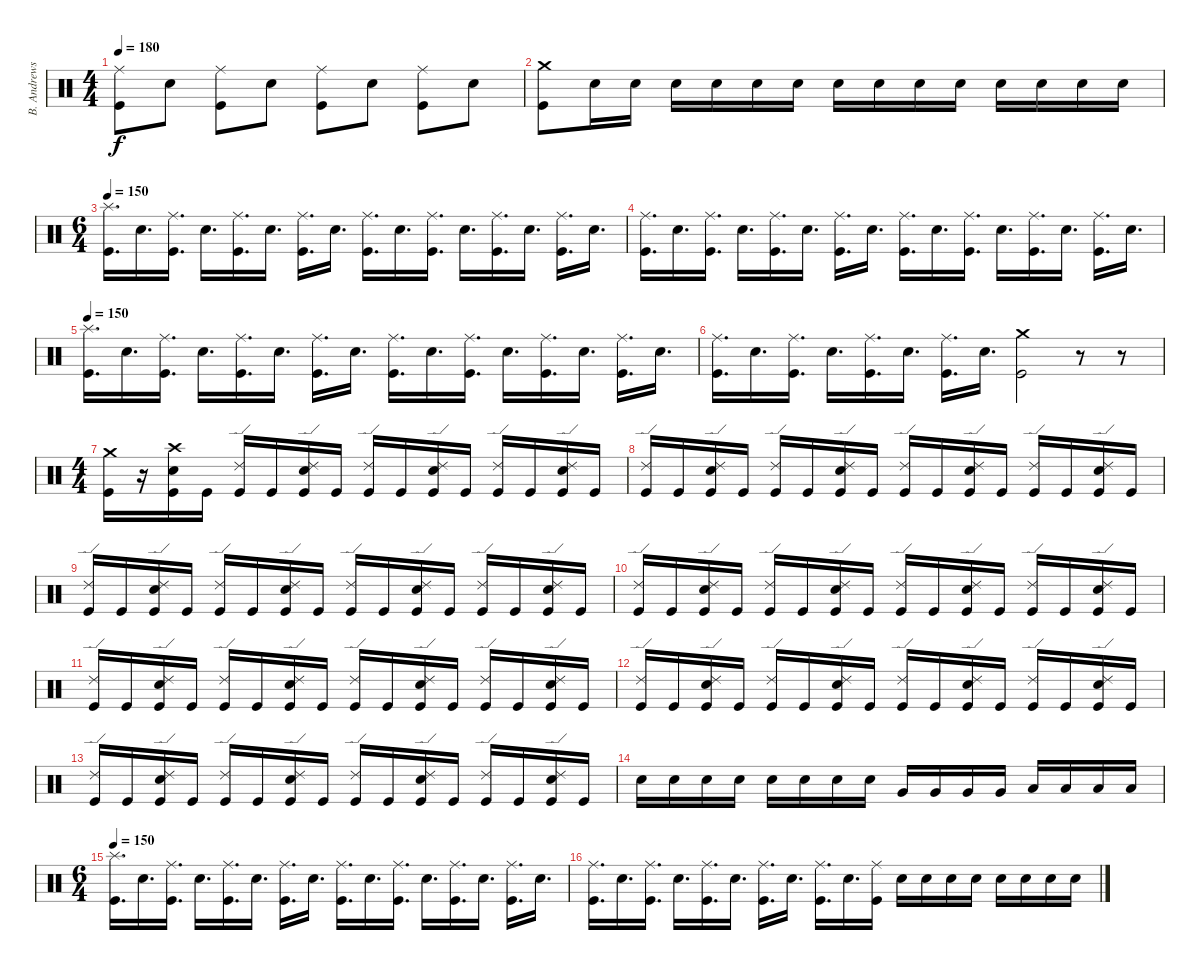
\track ("B. Andrews" "B. Andrews") {instrument percussion}
\staff {score}
\articulation defaults
\ts (4 4)
\tempo 180
\clef neutral
\ks c
("Ride (middle)" "Kick (hit)").8{dy f} "Electric Snare (hit)".8 ("Ride (middle)" "Kick (hit)").8 "Electric Snare (hit)".8 ("Ride (middle)" "Kick (hit)").8 "Electric Snare (hit)".8 ("Ride (middle)" "Kick (hit)").8 "Electric Snare (hit)".8 |
("Crash medium (hit)" "Kick (hit)").8 "Electric Snare (hit)".16 "Electric Snare (hit)".16 "Electric Snare (hit)".16 "Electric Snare (hit)".16 "Electric Snare (hit)".16 "Electric Snare (hit)".16 "Electric Snare (hit)".16 "Electric Snare (hit)".16 "Electric Snare (hit)".16 "Electric Snare (hit)".16 "Electric Snare (hit)".16 "Electric Snare (hit)".16 "Electric Snare (hit)".16 "Electric Snare (hit)".16 |
\ts (6 4)
\tempo 180
\tempo 150
("Splash (hit)" "Kick (hit)").16{d} "Electric Snare (hit)".16{d} ("Ride (middle)" "Kick (hit)").16{d} "Electric Snare (hit)".16{d} ("Ride (middle)" "Kick (hit)").16{d} "Electric Snare (hit)".16{d} ("Ride (middle)" "Kick (hit)").16{d} "Electric Snare (hit)".16{d} ("Ride (middle)" "Kick (hit)").16{d} "Electric Snare (hit)".16{d} ("Ride (middle)" "Kick (hit)").16{d} "Electric Snare (hit)".16{d} ("Ride (middle)" "Kick (hit)").16{d} "Electric Snare (hit)".16{d} ("Ride (middle)" "Kick (hit)").16{d} "Electric Snare (hit)".16{d} |
("Ride (middle)" "Kick (hit)").16{d} "Electric Snare (hit)".16{d} ("Ride (middle)" "Kick (hit)").16{d} "Electric Snare (hit)".16{d} ("Ride (middle)" "Kick (hit)").16{d} "Electric Snare (hit)".16{d} ("Ride (middle)" "Kick (hit)").16{d} "Electric Snare (hit)".16{d} ("Ride (middle)" "Kick (hit)").16{d} "Electric Snare (hit)".16{d} ("Ride (middle)" "Kick (hit)").16{d} "Electric Snare (hit)".16{d} ("Ride (middle)" "Kick (hit)").16{d} "Electric Snare (hit)".16{d} ("Ride (middle)" "Kick (hit)").16{d} "Electric Snare (hit)".16{d} |
\tempo 150
("Splash (hit)" "Kick (hit)").16{d} "Electric Snare (hit)".16{d} ("Ride (middle)" "Kick (hit)").16{d} "Electric Snare (hit)".16{d} ("Ride (middle)" "Kick (hit)").16{d} "Electric Snare (hit)".16{d} ("Ride (middle)" "Kick (hit)").16{d} "Electric Snare (hit)".16{d} ("Ride (middle)" "Kick (hit)").16{d} "Electric Snare (hit)".16{d} ("Ride (middle)" "Kick (hit)").16{d} "Electric Snare (hit)".16{d} ("Ride (middle)" "Kick (hit)").16{d} "Electric Snare (hit)".16{d} ("Ride (middle)" "Kick (hit)").16{d} "Electric Snare (hit)".16{d} |
("Ride (middle)" "Kick (hit)").16{d} "Electric Snare (hit)".16{d} ("Ride (middle)" "Kick (hit)").16{d} "Electric Snare (hit)".16{d} ("Ride (middle)" "Kick (hit)").16{d} "Electric Snare (hit)".16{d} ("Ride (middle)" "Kick (hit)").16{d} "Electric Snare (hit)".16{d} ("Crash medium (hit)" "Kick (hit)").2 r.8 r.8 |
\ts (4 4)
("Crash medium (hit)" "Kick (hit)").16 r.16 ("Crash high (hit)" "Electric Snare (hit)" "Kick (hit)").16 "Kick (hit)".16 ("Ride (edge) 2" "Kick (hit)").16 "Kick (hit)".16 ("Ride (edge) 2" "Electric Snare (hit)" "Kick (hit)").16 "Kick (hit)".16 ("Ride (edge) 2" "Kick (hit)").16 "Kick (hit)".16 ("Ride (edge) 2" "Electric Snare (hit)" "Kick (hit)").16 "Kick (hit)".16 ("Ride (edge) 2" "Kick (hit)").16 "Kick (hit)".16 ("Ride (edge) 2" "Electric Snare (hit)" "Kick (hit)").16 "Kick (hit)".16 |
("Ride (edge) 2" "Kick (hit)").16 "Kick (hit)".16 ("Ride (edge) 2" "Electric Snare (hit)" "Kick (hit)").16 "Kick (hit)".16 ("Ride (edge) 2" "Kick (hit)").16 "Kick (hit)".16 ("Ride (edge) 2" "Electric Snare (hit)" "Kick (hit)").16 "Kick (hit)".16 ("Ride (edge) 2" "Kick (hit)").16 "Kick (hit)".16 ("Ride (edge) 2" "Electric Snare (hit)" "Kick (hit)").16 "Kick (hit)".16 ("Ride (edge) 2" "Kick (hit)").16 "Kick (hit)".16 ("Ride (edge) 2" "Electric Snare (hit)" "Kick (hit)").16 "Kick (hit)".16 |
("Ride (edge) 2" "Kick (hit)").16 "Kick (hit)".16 ("Ride (edge) 2" "Electric Snare (hit)" "Kick (hit)").16 "Kick (hit)".16 ("Ride (edge) 2" "Kick (hit)").16 "Kick (hit)".16 ("Ride (edge) 2" "Electric Snare (hit)" "Kick (hit)").16 "Kick (hit)".16 ("Ride (edge) 2" "Kick (hit)").16 "Kick (hit)".16 ("Ride (edge) 2" "Electric Snare (hit)" "Kick (hit)").16 "Kick (hit)".16 ("Ride (edge) 2" "Kick (hit)").16 "Kick (hit)".16 ("Ride (edge) 2" "Electric Snare (hit)" "Kick (hit)").16 "Kick (hit)".16 |
("Ride (edge) 2" "Kick (hit)").16 "Kick (hit)".16 ("Ride (edge) 2" "Electric Snare (hit)" "Kick (hit)").16 "Kick (hit)".16 ("Ride (edge) 2" "Kick (hit)").16 "Kick (hit)".16 ("Ride (edge) 2" "Electric Snare (hit)" "Kick (hit)").16 "Kick (hit)".16 ("Ride (edge) 2" "Kick (hit)").16 "Kick (hit)".16 ("Ride (edge) 2" "Electric Snare (hit)" "Kick (hit)").16 "Kick (hit)".16 ("Ride (edge) 2" "Kick (hit)").16 "Kick (hit)".16 ("Ride (edge) 2" "Electric Snare (hit)" "Kick (hit)").16 "Kick (hit)".16 |
("Ride (edge) 2" "Kick (hit)").16 "Kick (hit)".16 ("Ride (edge) 2" "Electric Snare (hit)" "Kick (hit)").16 "Kick (hit)".16 ("Ride (edge) 2" "Kick (hit)").16 "Kick (hit)".16 ("Ride (edge) 2" "Electric Snare (hit)" "Kick (hit)").16 "Kick (hit)".16 ("Ride (edge) 2" "Kick (hit)").16 "Kick (hit)".16 ("Ride (edge) 2" "Electric Snare (hit)" "Kick (hit)").16 "Kick (hit)".16 ("Ride (edge) 2" "Kick (hit)").16 "Kick (hit)".16 ("Ride (edge) 2" "Electric Snare (hit)" "Kick (hit)").16 "Kick (hit)".16 |
("Ride (edge) 2" "Kick (hit)").16 "Kick (hit)".16 ("Ride (edge) 2" "Electric Snare (hit)" "Kick (hit)").16 "Kick (hit)".16 ("Ride (edge) 2" "Kick (hit)").16 "Kick (hit)".16 ("Ride (edge) 2" "Electric Snare (hit)" "Kick (hit)").16 "Kick (hit)".16 ("Ride (edge) 2" "Kick (hit)").16 "Kick (hit)".16 ("Ride (edge) 2" "Electric Snare (hit)" "Kick (hit)").16 "Kick (hit)".16 ("Ride (edge) 2" "Kick (hit)").16 "Kick (hit)".16 ("Ride (edge) 2" "Electric Snare (hit)" "Kick (hit)").16 "Kick (hit)".16 |
("Ride (edge) 2" "Kick (hit)").16 "Kick (hit)".16 ("Ride (edge) 2" "Electric Snare (hit)" "Kick (hit)").16 "Kick (hit)".16 ("Ride (edge) 2" "Kick (hit)").16 "Kick (hit)".16 ("Ride (edge) 2" "Electric Snare (hit)" "Kick (hit)").16 "Kick (hit)".16 ("Ride (edge) 2" "Kick (hit)").16 "Kick (hit)".16 ("Ride (edge) 2" "Electric Snare (hit)" "Kick (hit)").16 "Kick (hit)".16 ("Ride (edge) 2" "Kick (hit)").16 "Kick (hit)".16 ("Ride (edge) 2" "Electric Snare (hit)" "Kick (hit)").16 "Kick (hit)".16 |
"Electric Snare (hit)".16 "Electric Snare (hit)".16 "Electric Snare (hit)".16 "Electric Snare (hit)".16 "Electric Snare (hit)".16 "Electric Snare (hit)".16 "Electric Snare (hit)".16 "Electric Snare (hit)".16 "Very Low Tom (hit)".16 "Very Low Tom (hit)".16 "Very Low Tom (hit)".16 "Very Low Tom (hit)".16 "Low Floor Tom (hit)".16 "Low Floor Tom (hit)".16 "Low Floor Tom (hit)".16 "Low Floor Tom (hit)".16 |
\ts (6 4)
\tempo 150
("Splash (hit)" "Kick (hit)").16{d} "Electric Snare (hit)".16{d} ("Ride (middle)" "Kick (hit)").16{d} "Electric Snare (hit)".16{d} ("Ride (middle)" "Kick (hit)").16{d} "Electric Snare (hit)".16{d} ("Ride (middle)" "Kick (hit)").16{d} "Electric Snare (hit)".16{d} ("Ride (middle)" "Kick (hit)").16{d} "Electric Snare (hit)".16{d} ("Ride (middle)" "Kick (hit)").16{d} "Electric Snare (hit)".16{d} ("Ride (middle)" "Kick (hit)").16{d} "Electric Snare (hit)".16{d} ("Ride (middle)" "Kick (hit)").16{d} "Electric Snare (hit)".16{d} |
("Ride (middle)" "Kick (hit)").16{d} "Electric Snare (hit)".16{d} ("Ride (middle)" "Kick (hit)").16{d} "Electric Snare (hit)".16{d} ("Ride (middle)" "Kick (hit)").16{d} "Electric Snare (hit)".16{d} ("Ride (middle)" "Kick (hit)").16{d} "Electric Snare (hit)".16{d} ("Ride (middle)" "Kick (hit)").16{d} "Electric Snare (hit)".16{d} ("Ride (middle)" "Kick (hit)").16 "Electric Snare (hit)".16 "Electric Snare (hit)".16 "Electric Snare (hit)".16 "Electric Snare (hit)".16 "Electric Snare (hit)".16 "Electric Snare (hit)".16 "Electric Snare (hit)".16 "Electric Snare (hit)".16
